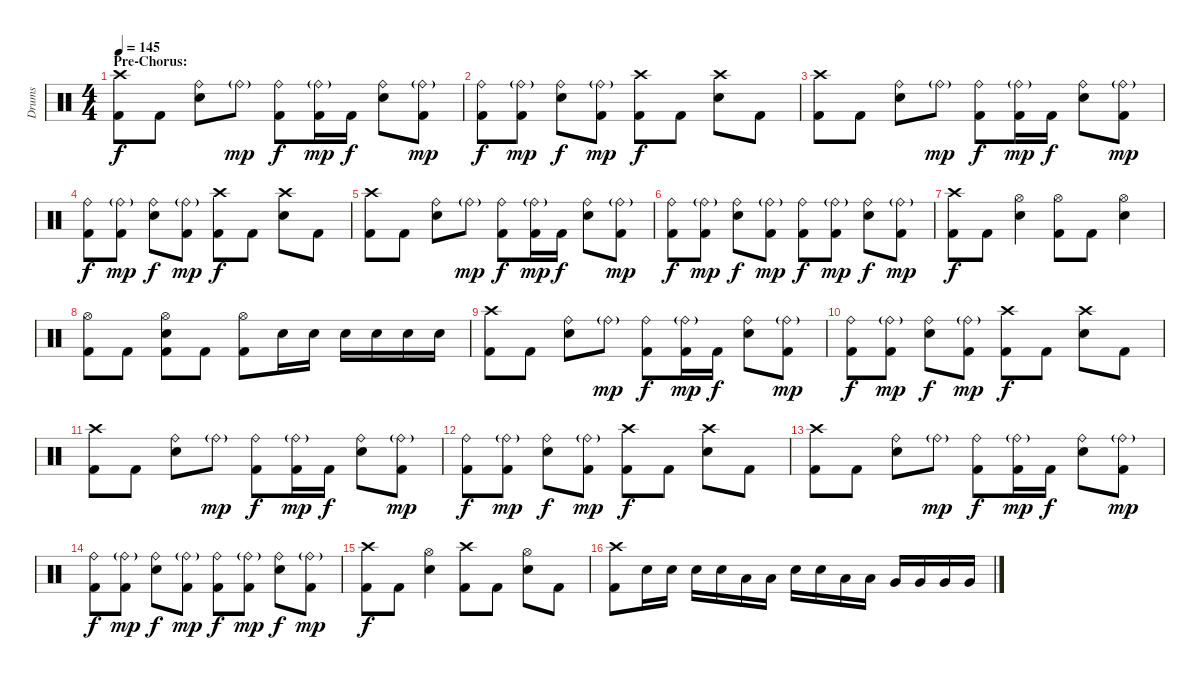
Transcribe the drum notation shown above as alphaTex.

\track ("Drums" "Drums") {instrument percussion}
\staff {score}
\articulation defaults
\ts (4 4)
\section ("" "Pre-Chorus:")
\tempo 145
\clef neutral
\ks c
("Crash high (hit)" "Kick (hit) 2").8{dy f} "Kick (hit) 2".8 ("Ride (bell)" "Electric Snare (hit)").8 "Ride (bell)"{g}.8{dy mp} ("Ride (bell)" "Kick (hit) 2").8{dy f} ("Ride (bell)"{g} "Kick (hit) 2").16{dy mp} "Kick (hit) 2".16{dy f} ("Ride (bell)" "Electric Snare (hit)").8 ("Ride (bell)"{g} "Kick (hit) 2").8{dy mp} |
("Ride (bell)" "Kick (hit) 2").8{dy f} ("Ride (bell)"{g} "Kick (hit) 2").8{dy mp} ("Ride (bell)" "Electric Snare (hit)").8{dy f} ("Ride (bell)"{g} "Kick (hit) 2").8{dy mp} ("Crash high (hit)" "Kick (hit) 2").8{dy f} "Kick (hit) 2".8 ("Crash high (hit)" "Electric Snare (hit)").8 "Kick (hit) 2".8 |
("Crash high (hit)" "Kick (hit) 2").8 "Kick (hit) 2".8 ("Ride (bell)" "Electric Snare (hit)").8 "Ride (bell)"{g}.8{dy mp} ("Ride (bell)" "Kick (hit) 2").8{dy f} ("Ride (bell)"{g} "Kick (hit) 2").16{dy mp} "Kick (hit) 2".16{dy f} ("Ride (bell)" "Electric Snare (hit)").8 ("Ride (bell)"{g} "Kick (hit) 2").8{dy mp} |
("Ride (bell)" "Kick (hit) 2").8{dy f} ("Ride (bell)"{g} "Kick (hit) 2").8{dy mp} ("Ride (bell)" "Electric Snare (hit)").8{dy f} ("Ride (bell)"{g} "Kick (hit) 2").8{dy mp} ("Crash high (hit)" "Kick (hit) 2").8{dy f} "Kick (hit) 2".8 ("Crash high (hit)" "Electric Snare (hit)").8 "Kick (hit) 2".8 |
("Crash high (hit)" "Kick (hit) 2").8 "Kick (hit) 2".8 ("Ride (bell)" "Electric Snare (hit)").8 "Ride (bell)"{g}.8{dy mp} ("Ride (bell)" "Kick (hit) 2").8{dy f} ("Ride (bell)"{g} "Kick (hit) 2").16{dy mp} "Kick (hit) 2".16{dy f} ("Ride (bell)" "Electric Snare (hit)").8 ("Ride (bell)"{g} "Kick (hit) 2").8{dy mp} |
("Ride (bell)" "Kick (hit) 2").8{dy f} ("Ride (bell)"{g} "Kick (hit) 2").8{dy mp} ("Ride (bell)" "Electric Snare (hit)").8{dy f} ("Ride (bell)"{g} "Kick (hit) 2").8{dy mp} ("Ride (bell)" "Kick (hit) 2").8{dy f} ("Ride (bell)"{g} "Kick (hit) 2").8{dy mp} ("Ride (bell)" "Electric Snare (hit)").8{dy f} ("Ride (bell)"{g} "Kick (hit) 2").8{dy mp} |
("Crash high (hit)" "Kick (hit) 2").8{dy f} "Kick (hit) 2".8 ("Hi-Hat (open)" "Electric Snare (hit)").4 ("Hi-Hat (open)" "Kick (hit) 2").8 "Kick (hit) 2".8 ("Hi-Hat (open)" "Electric Snare (hit)").4 |
("Hi-Hat (open)" "Kick (hit) 2").8 "Kick (hit) 2".8 ("Hi-Hat (open)" "Electric Snare (hit)" "Kick (hit) 2").8 "Kick (hit) 2".8 ("Hi-Hat (open)" "Kick (hit) 2").8 "Electric Snare (hit)".16 "Electric Snare (hit)".16 "Electric Snare (hit)".16 "Electric Snare (hit)".16 "Electric Snare (hit)".16 "Electric Snare (hit)".16 |
("Crash high (hit)" "Kick (hit) 2").8 "Kick (hit) 2".8 ("Ride (bell)" "Electric Snare (hit)").8 "Ride (bell)"{g}.8{dy mp} ("Ride (bell)" "Kick (hit) 2").8{dy f} ("Ride (bell)"{g} "Kick (hit) 2").16{dy mp} "Kick (hit) 2".16{dy f} ("Ride (bell)" "Electric Snare (hit)").8 ("Ride (bell)"{g} "Kick (hit) 2").8{dy mp} |
("Ride (bell)" "Kick (hit) 2").8{dy f} ("Ride (bell)"{g} "Kick (hit) 2").8{dy mp} ("Ride (bell)" "Electric Snare (hit)").8{dy f} ("Ride (bell)"{g} "Kick (hit) 2").8{dy mp} ("Crash high (hit)" "Kick (hit) 2").8{dy f} "Kick (hit) 2".8 ("Crash high (hit)" "Electric Snare (hit)").8 "Kick (hit) 2".8 |
("Crash high (hit)" "Kick (hit) 2").8 "Kick (hit) 2".8 ("Ride (bell)" "Electric Snare (hit)").8 "Ride (bell)"{g}.8{dy mp} ("Ride (bell)" "Kick (hit) 2").8{dy f} ("Ride (bell)"{g} "Kick (hit) 2").16{dy mp} "Kick (hit) 2".16{dy f} ("Ride (bell)" "Electric Snare (hit)").8 ("Ride (bell)"{g} "Kick (hit) 2").8{dy mp} |
("Ride (bell)" "Kick (hit) 2").8{dy f} ("Ride (bell)"{g} "Kick (hit) 2").8{dy mp} ("Ride (bell)" "Electric Snare (hit)").8{dy f} ("Ride (bell)"{g} "Kick (hit) 2").8{dy mp} ("Crash high (hit)" "Kick (hit) 2").8{dy f} "Kick (hit) 2".8 ("Crash high (hit)" "Electric Snare (hit)").8 "Kick (hit) 2".8 |
("Crash high (hit)" "Kick (hit) 2").8 "Kick (hit) 2".8 ("Ride (bell)" "Electric Snare (hit)").8 "Ride (bell)"{g}.8{dy mp} ("Ride (bell)" "Kick (hit) 2").8{dy f} ("Ride (bell)"{g} "Kick (hit) 2").16{dy mp} "Kick (hit) 2".16{dy f} ("Ride (bell)" "Electric Snare (hit)").8 ("Ride (bell)"{g} "Kick (hit) 2").8{dy mp} |
("Ride (bell)" "Kick (hit) 2").8{dy f} ("Ride (bell)"{g} "Kick (hit) 2").8{dy mp} ("Ride (bell)" "Electric Snare (hit)").8{dy f} ("Ride (bell)"{g} "Kick (hit) 2").8{dy mp} ("Ride (bell)" "Kick (hit) 2").8{dy f} ("Ride (bell)"{g} "Kick (hit) 2").8{dy mp} ("Ride (bell)" "Electric Snare (hit)").8{dy f} ("Ride (bell)"{g} "Kick (hit) 2").8{dy mp} |
("Crash high (hit)" "Kick (hit) 2").8{dy f} "Kick (hit) 2".8 ("Hi-Hat (open)" "Electric Snare (hit)").4 ("Crash high (hit)" "Kick (hit) 2").8 "Kick (hit) 2".8 ("Hi-Hat (open)" "Electric Snare (hit)").8 "Kick (hit) 2".8 |
("Crash high (hit)" "Kick (hit) 2").8 "Electric Snare (hit)".16 "Electric Snare (hit)".16 "Electric Snare (hit)".16 "Electric Snare (hit)".16 "Low Tom (hit)".16 "Low Tom (hit)".16 "Electric Snare (hit)".16 "Electric Snare (hit)".16 "Low Tom (hit)".16 "Low Tom (hit)".16 "Very Low Tom (hit)".16 "Very Low Tom (hit)".16 "Very Low Tom (hit)".16 "Very Low Tom (hit)".16
